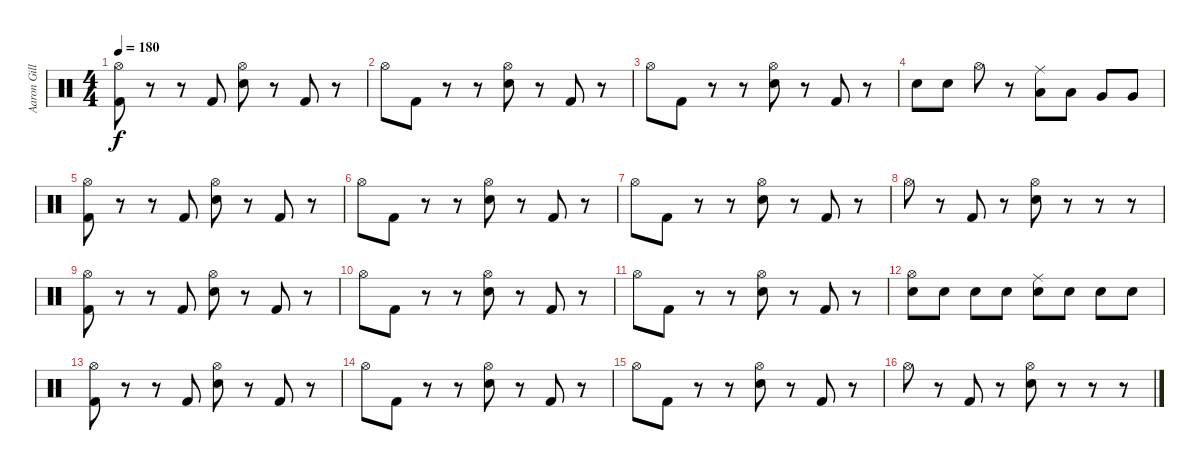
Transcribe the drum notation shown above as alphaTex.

\track ("Aaron Gillespie 1" "Aaron Gill") {instrument percussion}
\staff {score}
\articulation defaults
\ts (4 4)
\tempo 180
\clef neutral
\ks c
("Hi-Hat (open)" "Kick (hit) 2").8{dy f} r.8 r.8 "Kick (hit) 2".8 ("Hi-Hat (open)" "Snare (hit) 2").8 r.8 "Kick (hit) 2".8 r.8 |
"Hi-Hat (open)".8 "Kick (hit) 2".8 r.8 r.8 ("Hi-Hat (open)" "Snare (hit) 2").8 r.8 "Kick (hit) 2".8 r.8 |
"Hi-Hat (open)".8 "Kick (hit) 2".8 r.8 r.8 ("Hi-Hat (open)" "Snare (hit) 2").8 r.8 "Kick (hit) 2".8 r.8 |
"Snare (hit) 2".8 "Snare (hit) 2".8 "Hi-Hat (open)".8 r.8 ("Ride (middle)" "Low Tom (hit)").8 "Low Tom (hit)".8 "Very Low Tom (hit)".8 "Very Low Tom (hit)".8 |
("Hi-Hat (open)" "Kick (hit) 2").8 r.8 r.8 "Kick (hit) 2".8 ("Hi-Hat (open)" "Snare (hit) 2").8 r.8 "Kick (hit) 2".8 r.8 |
"Hi-Hat (open)".8 "Kick (hit) 2".8 r.8 r.8 ("Hi-Hat (open)" "Snare (hit) 2").8 r.8 "Kick (hit) 2".8 r.8 |
"Hi-Hat (open)".8 "Kick (hit) 2".8 r.8 r.8 ("Hi-Hat (open)" "Snare (hit) 2").8 r.8 "Kick (hit) 2".8 r.8 |
"Hi-Hat (open)".8 r.8 "Kick (hit) 2".8 r.8 ("Hi-Hat (open)" "Snare (hit) 2").8 r.8 r.8 r.8 |
("Hi-Hat (open)" "Kick (hit) 2").8 r.8 r.8 "Kick (hit) 2".8 ("Hi-Hat (open)" "Snare (hit) 2").8 r.8 "Kick (hit) 2".8 r.8 |
"Hi-Hat (open)".8 "Kick (hit) 2".8 r.8 r.8 ("Hi-Hat (open)" "Snare (hit) 2").8 r.8 "Kick (hit) 2".8 r.8 |
"Hi-Hat (open)".8 "Kick (hit) 2".8 r.8 r.8 ("Hi-Hat (open)" "Snare (hit) 2").8 r.8 "Kick (hit) 2".8 r.8 |
("Hi-Hat (open)" "Snare (hit) 2").8 "Snare (hit) 2".8 "Snare (hit) 2".8 "Snare (hit) 2".8 ("Ride (middle)" "Snare (hit) 2").8 "Snare (hit) 2".8 "Snare (hit) 2".8 "Snare (hit) 2".8 |
("Hi-Hat (open)" "Kick (hit) 2").8 r.8 r.8 "Kick (hit) 2".8 ("Hi-Hat (open)" "Snare (hit) 2").8 r.8 "Kick (hit) 2".8 r.8 |
"Hi-Hat (open)".8 "Kick (hit) 2".8 r.8 r.8 ("Hi-Hat (open)" "Snare (hit) 2").8 r.8 "Kick (hit) 2".8 r.8 |
"Hi-Hat (open)".8 "Kick (hit) 2".8 r.8 r.8 ("Hi-Hat (open)" "Snare (hit) 2").8 r.8 "Kick (hit) 2".8 r.8 |
"Hi-Hat (open)".8 r.8 "Kick (hit) 2".8 r.8 ("Hi-Hat (open)" "Snare (hit) 2").8 r.8 r.8 r.8
